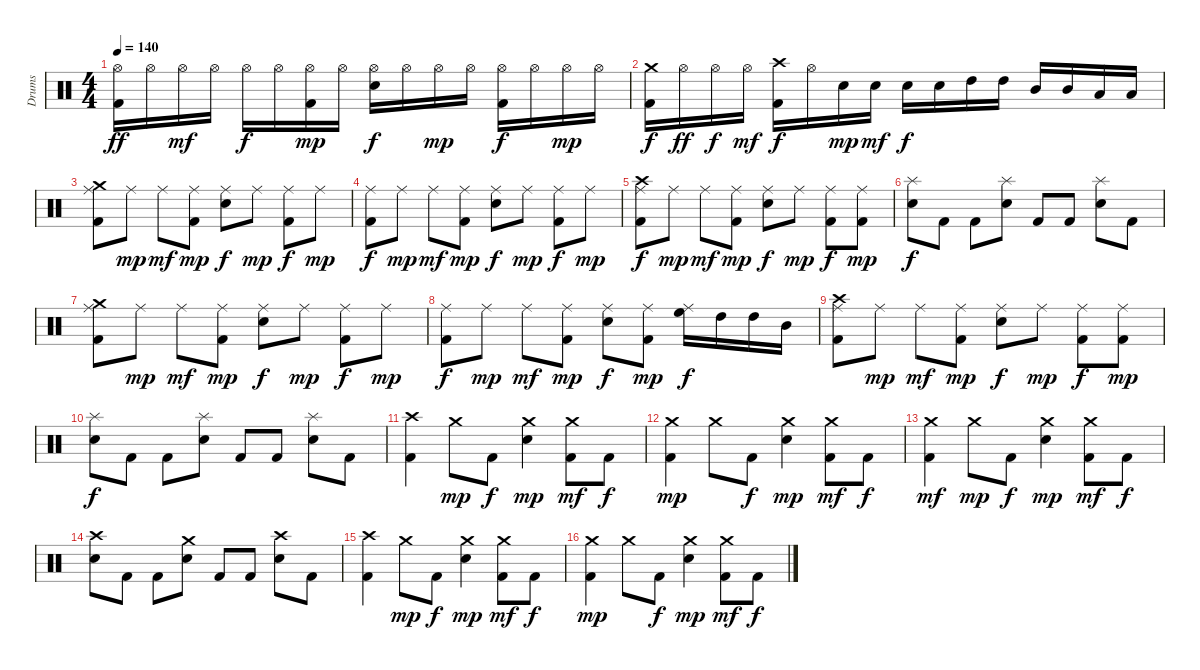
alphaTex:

\track ("Drums" "Drums") {instrument percussion}
\staff {score}
\articulation defaults
\ts (4 4)
\tempo 140
\clef neutral
\ks c
("Hi-Hat (open)" "Kick (hit) 2").16{dy ff} "Hi-Hat (open)".16 "Hi-Hat (open)".16{dy mf} "Hi-Hat (open)".16 "Hi-Hat (open)".16{dy f} "Hi-Hat (open)".16 ("Hi-Hat (open)" "Kick (hit) 2").16{dy mp} "Hi-Hat (open)".16 ("Hi-Hat (open)" "Electric Snare (hit)").16{dy f} "Hi-Hat (open)".16 "Hi-Hat (open)".16{dy mp} "Hi-Hat (open)".16 ("Hi-Hat (open)" "Kick (hit) 2").16{dy f} "Hi-Hat (open)".16 "Hi-Hat (open)".16{dy mp} "Hi-Hat (open)".16 |
("Crash medium (hit)" "Kick (hit) 2").16{dy f} "Hi-Hat (open)".16{dy ff} "Hi-Hat (open)".16{dy f} "Hi-Hat (open)".16{dy mf} ("Crash high (hit)" "Kick (hit) 2").16{dy f} "Hi-Hat (open)".16 "Electric Snare (hit)".16{dy mp} "Electric Snare (hit)".16{dy mf} "Electric Snare (hit)".16{dy f} "Electric Snare (hit)".16 "High Tom (hit)".16 "High Tom (hit)".16 "Mid Tom (hit)".16 "Mid Tom (hit)".16 "Low Tom (hit)".16 "Low Tom (hit)".16 |
("Crash medium (hit)" "Ride (middle)" "Kick (hit) 2").8 "Ride (middle)".8{dy mp} "Ride (middle)".8{dy mf} ("Ride (middle)" "Kick (hit) 2").8{dy mp} ("Ride (middle)" "Electric Snare (hit)").8{dy f} "Ride (middle)".8{dy mp} ("Ride (middle)" "Kick (hit) 2").8{dy f} "Ride (middle)".8{dy mp} |
("Ride (middle)" "Kick (hit) 2").8{dy f} "Ride (middle)".8{dy mp} "Ride (middle)".8{dy mf} ("Ride (middle)" "Kick (hit) 2").8{dy mp} ("Ride (middle)" "Electric Snare (hit)").8{dy f} "Ride (middle)".8{dy mp} ("Ride (middle)" "Kick (hit) 2").8{dy f} "Ride (middle)".8{dy mp} |
("Crash high (hit)" "Ride (middle)" "Kick (hit) 2").8{dy f} "Ride (middle)".8{dy mp} "Ride (middle)".8{dy mf} ("Ride (middle)" "Kick (hit) 2").8{dy mp} ("Ride (middle)" "Electric Snare (hit)").8{dy f} "Ride (middle)".8{dy mp} ("Ride (middle)" "Kick (hit) 2").8{dy f} ("Ride (middle)" "Kick (hit) 2").8{dy mp} |
("Splash (hit)" "Electric Snare (hit)").8{dy f} "Kick (hit) 2".8 "Kick (hit) 2".8 ("Splash (hit)" "Electric Snare (hit)").8 "Kick (hit) 2".8 "Kick (hit) 2".8 ("Splash (hit)" "Electric Snare (hit)").8 "Kick (hit) 2".8 |
("Crash medium (hit)" "Ride (middle)" "Kick (hit) 2").8 "Ride (middle)".8{dy mp} "Ride (middle)".8{dy mf} ("Ride (middle)" "Kick (hit) 2").8{dy mp} ("Ride (middle)" "Electric Snare (hit)").8{dy f} "Ride (middle)".8{dy mp} ("Ride (middle)" "Kick (hit) 2").8{dy f} "Ride (middle)".8{dy mp} |
("Ride (middle)" "Kick (hit) 2").8{dy f} "Ride (middle)".8{dy mp} "Ride (middle)".8{dy mf} ("Ride (middle)" "Kick (hit) 2").8{dy mp} ("Ride (middle)" "Electric Snare (hit)").8{dy f} ("Ride (middle)" "Kick (hit) 2").8{dy mp} ("Ride (middle)" "High Floor Tom (hit)").16{dy f} "High Tom (hit)".16 "High Tom (hit)".16 "Mid Tom (hit)".16 |
("Crash high (hit)" "Ride (middle)" "Kick (hit) 2").8 "Ride (middle)".8{dy mp} "Ride (middle)".8{dy mf} ("Ride (middle)" "Kick (hit) 2").8{dy mp} ("Ride (middle)" "Electric Snare (hit)").8{dy f} "Ride (middle)".8{dy mp} ("Ride (middle)" "Kick (hit) 2").8{dy f} ("Ride (middle)" "Kick (hit) 2").8{dy mp} |
("Splash (hit)" "Electric Snare (hit)").8{dy f} "Kick (hit) 2".8 "Kick (hit) 2".8 ("Splash (hit)" "Electric Snare (hit)").8 "Kick (hit) 2".8 "Kick (hit) 2".8 ("Splash (hit)" "Electric Snare (hit)").8 "Kick (hit) 2".8 |
("Crash high (hit)" "Kick (hit) 2").4 "Crash medium (hit)".8{dy mp} "Kick (hit) 2".8{dy f} ("Crash medium (hit)" "Electric Snare (hit)").4{dy mp} ("Crash medium (hit)" "Kick (hit) 2").8{dy mf} "Kick (hit) 2".8{dy f} |
("Crash medium (hit)" "Kick (hit) 2").4{dy mp} "Crash medium (hit)".8 "Kick (hit) 2".8{dy f} ("Crash medium (hit)" "Electric Snare (hit)").4{dy mp} ("Crash medium (hit)" "Kick (hit) 2").8{dy mf} "Kick (hit) 2".8{dy f} |
("Crash medium (hit)" "Kick (hit) 2").4{dy mf} "Crash medium (hit)".8{dy mp} "Kick (hit) 2".8{dy f} ("Crash medium (hit)" "Electric Snare (hit)").4{dy mp} ("Crash medium (hit)" "Kick (hit) 2").8{dy mf} "Kick (hit) 2".8{dy f} |
("Crash high (hit)" "Electric Snare (hit)").8 "Kick (hit) 2".8 "Kick (hit) 2".8 ("Crash medium (hit)" "Electric Snare (hit)").8 "Kick (hit) 2".8 "Kick (hit) 2".8 ("Crash high (hit)" "Electric Snare (hit)").8 "Kick (hit) 2".8 |
("Crash high (hit)" "Kick (hit) 2").4 "Crash medium (hit)".8{dy mp} "Kick (hit) 2".8{dy f} ("Crash medium (hit)" "Electric Snare (hit)").4{dy mp} ("Crash medium (hit)" "Kick (hit) 2").8{dy mf} "Kick (hit) 2".8{dy f} |
("Crash medium (hit)" "Kick (hit) 2").4{dy mp} "Crash medium (hit)".8 "Kick (hit) 2".8{dy f} ("Crash medium (hit)" "Electric Snare (hit)").4{dy mp} ("Crash medium (hit)" "Kick (hit) 2").8{dy mf} "Kick (hit) 2".8{dy f}
